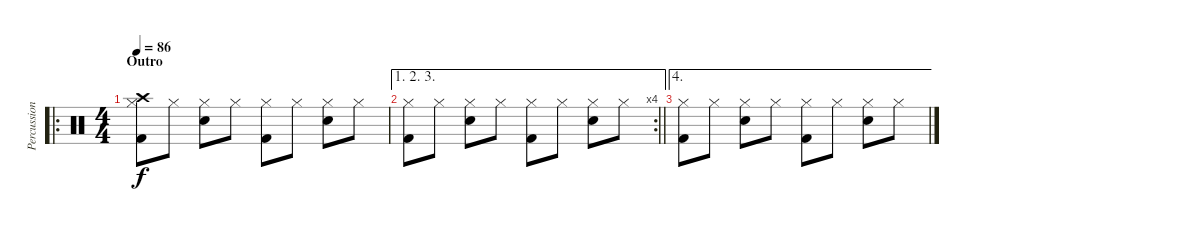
\track ("Percussion" "Percussion") {instrument percussion}
\staff {score}
\articulation defaults
\ro
\ts (4 4)
\section ("" "Outro")
\tempo 86
\clef neutral
\ks c
("Crash high (hit)" "Hi-Hat (closed)" "Kick (hit) 2").8{dy f} "Hi-Hat (closed)".8 ("Snare (hit) 2" "Hi-Hat (closed)").8 "Hi-Hat (closed)".8 ("Hi-Hat (closed)" "Kick (hit) 2").8 "Hi-Hat (closed)".8 ("Hi-Hat (closed)" "Snare (hit) 2").8 "Hi-Hat (closed)".8 |
\ae (1 2 3)
\rc 4
\barLineRight lightlight
("Hi-Hat (closed)" "Kick (hit) 2").8 "Hi-Hat (closed)".8 ("Snare (hit) 2" "Hi-Hat (closed)").8 "Hi-Hat (closed)".8 ("Hi-Hat (closed)" "Kick (hit) 2").8 "Hi-Hat (closed)".8 ("Hi-Hat (closed)" "Snare (hit) 2").8 "Hi-Hat (closed)".8 |
\ae 4
("Hi-Hat (closed)" "Kick (hit) 2").8 "Hi-Hat (closed)".8 ("Snare (hit) 2" "Hi-Hat (closed)").8 "Hi-Hat (closed)".8 ("Hi-Hat (closed)" "Kick (hit) 2").8 "Hi-Hat (closed)".8 ("Hi-Hat (closed)" "Snare (hit) 2").8 "Hi-Hat (closed)".8
